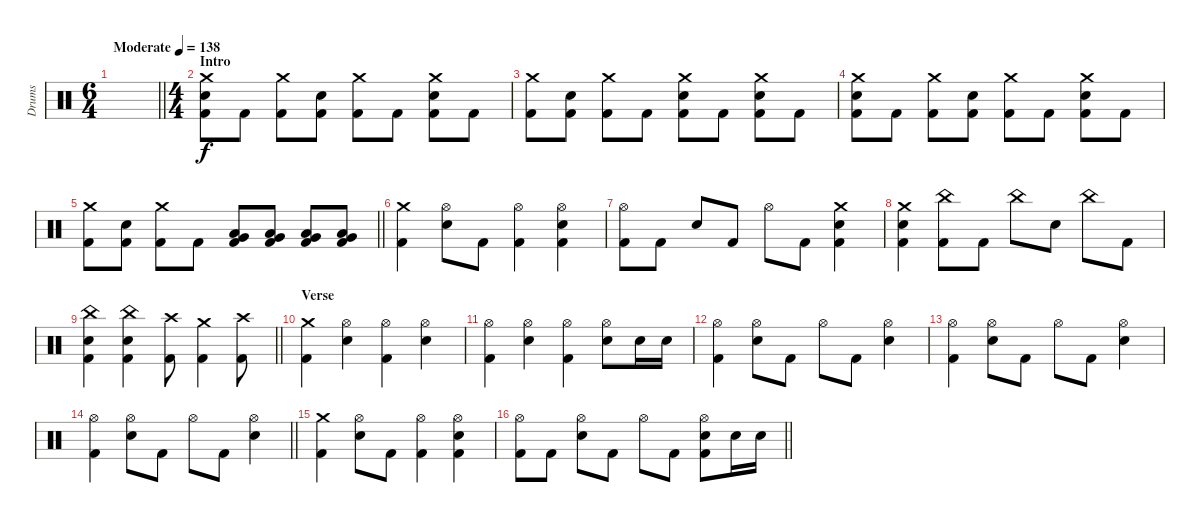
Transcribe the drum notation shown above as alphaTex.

\track ("Drums" "Drums") {instrument percussion}
\staff {score}
\articulation defaults
\ts (6 4)
\tempo (138 "Moderate")
\clef neutral
\barLineRight lightlight
\ks c
|
\ts (4 4)
\section ("" "Intro")
("Crash medium (hit)" "Snare (hit) 2" "Kick (hit) 2").8 "Kick (hit) 2".8 ("Crash medium (hit)" "Kick (hit) 2").8 ("Snare (hit) 2" "Kick (hit) 2").8 ("Crash medium (hit)" "Kick (hit) 2").8 "Kick (hit) 2".8 ("Crash medium (hit)" "Snare (hit) 2" "Kick (hit) 2").8 "Kick (hit) 2".8 |
("Crash medium (hit)" "Kick (hit) 2").8 ("Snare (hit) 2" "Kick (hit) 2").8 ("Crash medium (hit)" "Kick (hit) 2").8 "Kick (hit) 2".8 ("Crash medium (hit)" "Snare (hit) 2" "Kick (hit) 2").8 "Kick (hit) 2".8 ("Crash medium (hit)" "Snare (hit) 2" "Kick (hit) 2").8 "Kick (hit) 2".8 |
("Crash medium (hit)" "Snare (hit) 2" "Kick (hit) 2").8 "Kick (hit) 2".8 ("Crash medium (hit)" "Kick (hit) 2").8 ("Snare (hit) 2" "Kick (hit) 2").8 ("Crash medium (hit)" "Kick (hit) 2").8 "Kick (hit) 2".8 ("Crash medium (hit)" "Snare (hit) 2" "Kick (hit) 2").8 "Kick (hit) 2".8 |
\barLineRight lightlight
("Crash medium (hit)" "Kick (hit) 2").8 ("Snare (hit) 2" "Kick (hit) 2").8 ("Crash medium (hit)" "Kick (hit) 2").8 "Kick (hit) 2".8 ("Low Tom (hit)" "Very Low Tom (hit)" "Kick (hit) 2").8 ("Low Tom (hit)" "Very Low Tom (hit)" "Kick (hit) 2").8 ("Low Tom (hit)" "Very Low Tom (hit)" "Kick (hit) 2").8 ("Low Tom (hit)" "Very Low Tom (hit)" "Kick (hit) 2").8 |
\section ("" "")
("Crash medium (hit)" "Kick (hit) 2").4 ("Hi-Hat (open)" "Snare (hit) 2").8 "Kick (hit) 2".8 ("Hi-Hat (open)" "Kick (hit) 2").4 ("Hi-Hat (open)" "Snare (hit) 2" "Kick (hit) 2").4 |
("Hi-Hat (open)" "Kick (hit) 2").8 "Kick (hit) 2".8 "Snare (hit) 2".8 "Kick (hit) 2".8 "Hi-Hat (open)".8 "Kick (hit) 2".8 ("Crash medium (hit)" "Snare (hit) 2" "Kick (hit) 2").4 |
("Crash medium (hit)" "Snare (hit) 2" "Kick (hit) 2").4 ("China (hit)" "Kick (hit) 2").8 "Kick (hit) 2".8 "China (hit)".8 "Snare (hit) 2".8 "China (hit)".8 "Kick (hit) 2".8 |
\barLineRight lightlight
("China (hit)" "Snare (hit) 2" "Kick (hit) 2").4 ("China (hit)" "Snare (hit) 2" "Kick (hit) 2").4 ("Crash high (hit)" "Kick (hit) 2").8 ("Crash medium (hit)" "Kick (hit) 2").4 ("Crash high (hit)" "Kick (hit) 2").8 |
\section ("" "Verse")
("Crash medium (hit)" "Kick (hit) 2").4 ("Hi-Hat (open)" "Snare (hit) 2").4 ("Hi-Hat (open)" "Kick (hit) 2").4 ("Hi-Hat (open)" "Snare (hit) 2").4 |
("Hi-Hat (open)" "Kick (hit) 2").4 ("Hi-Hat (open)" "Snare (hit) 2").4 ("Hi-Hat (open)" "Kick (hit) 2").4 ("Hi-Hat (open)" "Snare (hit) 2").8 "Snare (hit) 2".16 "Snare (hit) 2".16 |
("Hi-Hat (open)" "Kick (hit) 2").4 ("Hi-Hat (open)" "Snare (hit) 2").8 "Kick (hit) 2".8 "Hi-Hat (open)".8 "Kick (hit) 2".8 ("Hi-Hat (open)" "Snare (hit) 2").4 |
("Hi-Hat (open)" "Kick (hit) 2").4 ("Hi-Hat (open)" "Snare (hit) 2").8 "Kick (hit) 2".8 "Hi-Hat (open)".8 "Kick (hit) 2".8 ("Hi-Hat (open)" "Snare (hit) 2").4 |
\barLineRight lightlight
("Hi-Hat (open)" "Kick (hit) 2").4 ("Hi-Hat (open)" "Snare (hit) 2").8 "Kick (hit) 2".8 "Hi-Hat (open)".8 "Kick (hit) 2".8 ("Hi-Hat (open)" "Snare (hit) 2").4 |
\section ("" "")
("Crash medium (hit)" "Kick (hit) 2").4 ("Hi-Hat (open)" "Snare (hit) 2").8 "Kick (hit) 2".8 ("Hi-Hat (open)" "Kick (hit) 2").4 ("Hi-Hat (open)" "Snare (hit) 2" "Kick (hit) 2").4 |
\barLineRight lightlight
("Hi-Hat (open)" "Kick (hit) 2").8 "Kick (hit) 2".8 ("Hi-Hat (open)" "Snare (hit) 2").8 "Kick (hit) 2".8 "Hi-Hat (open)".8 "Kick (hit) 2".8 ("Hi-Hat (open)" "Snare (hit) 2" "Kick (hit) 2").8 "Snare (hit) 2".16 "Snare (hit) 2".16
